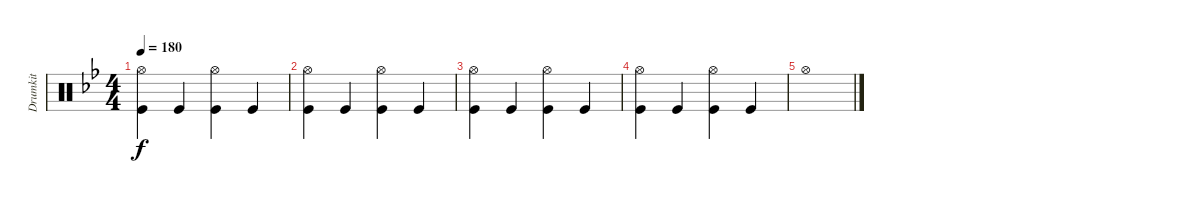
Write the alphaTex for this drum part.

\track ("Drumkit" "Drumkit") {instrument percussion}
\staff {score}
\articulation defaults
\ts (4 4)
\tempo 180
\clef neutral
\ks bb
("Hi-Hat (open)" "Kick (hit)").4{dy f} "Kick (hit)".4 ("Hi-Hat (open)" "Kick (hit)").4 "Kick (hit)".4 |
("Hi-Hat (open)" "Kick (hit)").4 "Kick (hit)".4 ("Hi-Hat (open)" "Kick (hit)").4 "Kick (hit)".4 |
("Hi-Hat (open)" "Kick (hit)").4 "Kick (hit)".4 ("Hi-Hat (open)" "Kick (hit)").4 "Kick (hit)".4 |
("Hi-Hat (open)" "Kick (hit)").4 "Kick (hit)".4 ("Hi-Hat (open)" "Kick (hit)").4 "Kick (hit)".4 |
"Hi-Hat (open)".1
